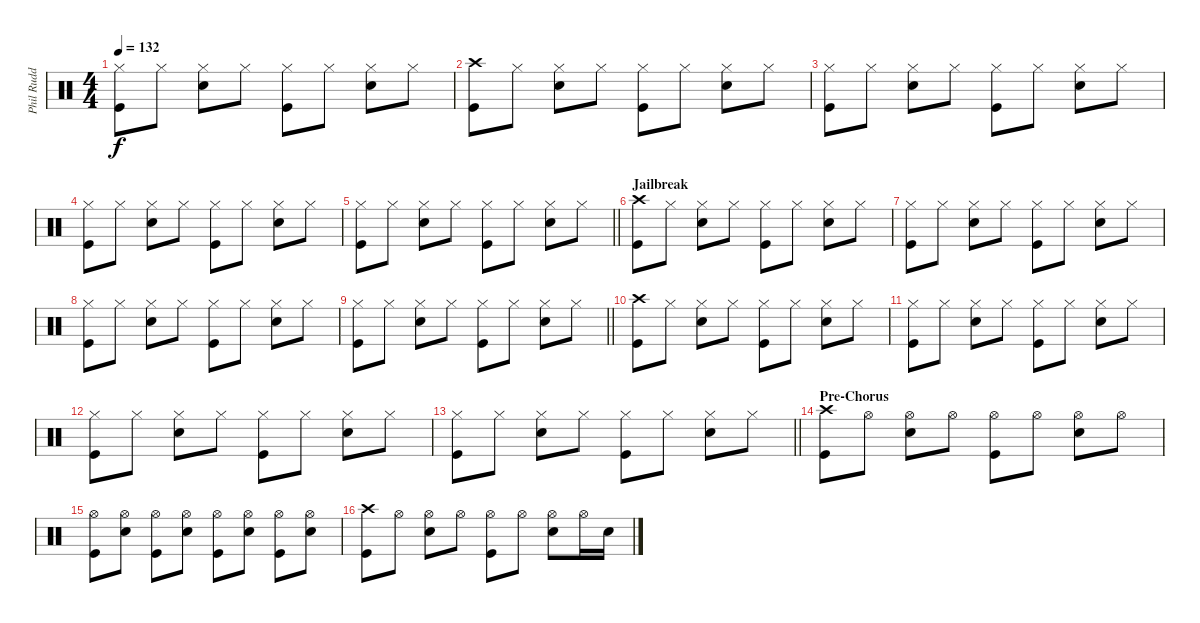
\track ("Phil Rudd" "Phil Rudd") {instrument percussion}
\staff {score}
\articulation defaults
\ts (4 4)
\tempo 132
\clef neutral
\ks c
("Hi-Hat (closed)" "Kick (hit)").8{dy f} "Hi-Hat (closed)".8 ("Hi-Hat (closed)" "Snare (hit) 2").8 "Hi-Hat (closed)".8 ("Hi-Hat (closed)" "Kick (hit)").8 "Hi-Hat (closed)".8 ("Hi-Hat (closed)" "Snare (hit) 2").8 "Hi-Hat (closed)".8 |
("Crash high (hit)" "Kick (hit)").8 "Hi-Hat (closed)".8 ("Hi-Hat (closed)" "Snare (hit) 2").8 "Hi-Hat (closed)".8 ("Hi-Hat (closed)" "Kick (hit)").8 "Hi-Hat (closed)".8 ("Hi-Hat (closed)" "Snare (hit) 2").8 "Hi-Hat (closed)".8 |
("Hi-Hat (closed)" "Kick (hit)").8 "Hi-Hat (closed)".8 ("Hi-Hat (closed)" "Snare (hit) 2").8 "Hi-Hat (closed)".8 ("Hi-Hat (closed)" "Kick (hit)").8 "Hi-Hat (closed)".8 ("Hi-Hat (closed)" "Snare (hit) 2").8 "Hi-Hat (closed)".8 |
("Hi-Hat (closed)" "Kick (hit)").8 "Hi-Hat (closed)".8 ("Hi-Hat (closed)" "Snare (hit) 2").8 "Hi-Hat (closed)".8 ("Hi-Hat (closed)" "Kick (hit)").8 "Hi-Hat (closed)".8 ("Hi-Hat (closed)" "Snare (hit) 2").8 "Hi-Hat (closed)".8 |
\barLineRight lightlight
("Hi-Hat (closed)" "Kick (hit)").8 "Hi-Hat (closed)".8 ("Hi-Hat (closed)" "Snare (hit) 2").8 "Hi-Hat (closed)".8 ("Hi-Hat (closed)" "Kick (hit)").8 "Hi-Hat (closed)".8 ("Hi-Hat (closed)" "Snare (hit) 2").8 "Hi-Hat (closed)".8 |
\section ("" "Jailbreak")
("Crash high (hit)" "Kick (hit)").8 "Hi-Hat (closed)".8 ("Hi-Hat (closed)" "Snare (hit) 2").8 "Hi-Hat (closed)".8 ("Hi-Hat (closed)" "Kick (hit)").8 "Hi-Hat (closed)".8 ("Hi-Hat (closed)" "Snare (hit) 2").8 "Hi-Hat (closed)".8 |
("Hi-Hat (closed)" "Kick (hit)").8 "Hi-Hat (closed)".8 ("Hi-Hat (closed)" "Snare (hit) 2").8 "Hi-Hat (closed)".8 ("Hi-Hat (closed)" "Kick (hit)").8 "Hi-Hat (closed)".8 ("Hi-Hat (closed)" "Snare (hit) 2").8 "Hi-Hat (closed)".8 |
("Hi-Hat (closed)" "Kick (hit)").8 "Hi-Hat (closed)".8 ("Hi-Hat (closed)" "Snare (hit) 2").8 "Hi-Hat (closed)".8 ("Hi-Hat (closed)" "Kick (hit)").8 "Hi-Hat (closed)".8 ("Hi-Hat (closed)" "Snare (hit) 2").8 "Hi-Hat (closed)".8 |
\barLineRight lightlight
("Hi-Hat (closed)" "Kick (hit)").8 "Hi-Hat (closed)".8 ("Hi-Hat (closed)" "Snare (hit) 2").8 "Hi-Hat (closed)".8 ("Hi-Hat (closed)" "Kick (hit)").8 "Hi-Hat (closed)".8 ("Hi-Hat (closed)" "Snare (hit) 2").8 "Hi-Hat (closed)".8 |
("Crash high (hit)" "Kick (hit)").8 "Hi-Hat (closed)".8 ("Hi-Hat (closed)" "Snare (hit) 2").8 "Hi-Hat (closed)".8 ("Hi-Hat (closed)" "Kick (hit)").8 "Hi-Hat (closed)".8 ("Hi-Hat (closed)" "Snare (hit) 2").8 "Hi-Hat (closed)".8 |
("Hi-Hat (closed)" "Kick (hit)").8 "Hi-Hat (closed)".8 ("Hi-Hat (closed)" "Snare (hit) 2").8 "Hi-Hat (closed)".8 ("Hi-Hat (closed)" "Kick (hit)").8 "Hi-Hat (closed)".8 ("Hi-Hat (closed)" "Snare (hit) 2").8 "Hi-Hat (closed)".8 |
("Hi-Hat (closed)" "Kick (hit)").8 "Hi-Hat (closed)".8 ("Hi-Hat (closed)" "Snare (hit) 2").8 "Hi-Hat (closed)".8 ("Hi-Hat (closed)" "Kick (hit)").8 "Hi-Hat (closed)".8 ("Hi-Hat (closed)" "Snare (hit) 2").8 "Hi-Hat (closed)".8 |
\barLineRight lightlight
("Hi-Hat (closed)" "Kick (hit)").8 "Hi-Hat (closed)".8 ("Hi-Hat (closed)" "Snare (hit) 2").8 "Hi-Hat (closed)".8 ("Hi-Hat (closed)" "Kick (hit)").8 "Hi-Hat (closed)".8 ("Hi-Hat (closed)" "Snare (hit) 2").8 "Hi-Hat (closed)".8 |
\section ("" "Pre-Chorus")
("Crash high (hit)" "Kick (hit)").8 "Hi-Hat (open)".8 ("Hi-Hat (open)" "Snare (hit) 2").8 "Hi-Hat (open)".8 ("Hi-Hat (open)" "Kick (hit)").8 "Hi-Hat (open)".8 ("Hi-Hat (open)" "Snare (hit) 2").8 "Hi-Hat (open)".8 |
("Hi-Hat (open)" "Kick (hit)").8 ("Hi-Hat (open)" "Snare (hit) 2").8 ("Hi-Hat (open)" "Kick (hit)").8 ("Hi-Hat (open)" "Snare (hit) 2").8 ("Hi-Hat (open)" "Kick (hit)").8 ("Hi-Hat (open)" "Snare (hit) 2").8 ("Hi-Hat (open)" "Kick (hit)").8 ("Hi-Hat (open)" "Snare (hit) 2").8 |
("Crash high (hit)" "Kick (hit)").8 "Hi-Hat (open)".8 ("Hi-Hat (open)" "Snare (hit) 2").8 "Hi-Hat (open)".8 ("Hi-Hat (open)" "Kick (hit)").8 "Hi-Hat (open)".8 ("Hi-Hat (open)" "Snare (hit) 2").8 "Hi-Hat (open)".16 "Snare (hit) 2".16
